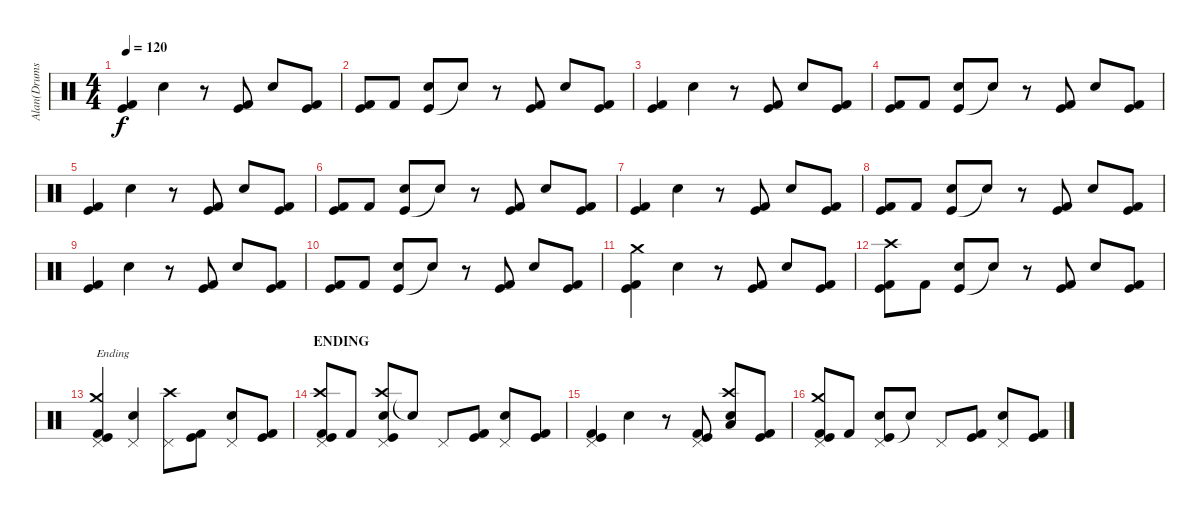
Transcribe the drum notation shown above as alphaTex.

\track ("Alan(Drums)" "Alan(Drums") {instrument percussion}
\staff {score}
\articulation defaults
\ts (4 4)
\tempo 120
\clef neutral
\ks c
("Kick (hit) 2" "Kick (hit)").4{dy f} "Electric Snare (hit)".4 r.8 ("Kick (hit)" "Kick (hit) 2").8 "Electric Snare (hit)".8 ("Kick (hit)" "Kick (hit) 2").8 |
("Kick (hit)" "Kick (hit) 2").8 "Kick (hit) 2".8 ("Kick (hit)" "Electric Snare (hit)").8 "Snare (hit)"{t}.8 r.8 ("Kick (hit)" "Kick (hit) 2").8 "Electric Snare (hit)".8 ("Kick (hit)" "Kick (hit) 2").8 |
("Kick (hit) 2" "Kick (hit)").4 "Electric Snare (hit)".4 r.8 ("Kick (hit)" "Kick (hit) 2").8 "Electric Snare (hit)".8 ("Kick (hit)" "Kick (hit) 2").8 |
("Kick (hit)" "Kick (hit) 2").8 "Kick (hit) 2".8 ("Kick (hit)" "Electric Snare (hit)").8 "Snare (hit)"{t}.8 r.8 ("Kick (hit)" "Kick (hit) 2").8 "Electric Snare (hit)".8 ("Kick (hit)" "Kick (hit) 2").8 |
("Kick (hit) 2" "Kick (hit)").4 "Electric Snare (hit)".4 r.8 ("Kick (hit)" "Kick (hit) 2").8 "Electric Snare (hit)".8 ("Kick (hit)" "Kick (hit) 2").8 |
("Kick (hit)" "Kick (hit) 2").8 "Kick (hit) 2".8 ("Kick (hit)" "Electric Snare (hit)").8 "Snare (hit)"{t}.8 r.8 ("Kick (hit)" "Kick (hit) 2").8 "Electric Snare (hit)".8 ("Kick (hit)" "Kick (hit) 2").8 |
("Kick (hit) 2" "Kick (hit)").4 "Electric Snare (hit)".4 r.8 ("Kick (hit)" "Kick (hit) 2").8 "Electric Snare (hit)".8 ("Kick (hit)" "Kick (hit) 2").8 |
("Kick (hit)" "Kick (hit) 2").8 "Kick (hit) 2".8 ("Kick (hit)" "Electric Snare (hit)").8 "Snare (hit)"{t}.8 r.8 ("Kick (hit)" "Kick (hit) 2").8 "Electric Snare (hit)".8 ("Kick (hit)" "Kick (hit) 2").8 |
("Kick (hit) 2" "Kick (hit)").4 "Electric Snare (hit)".4 r.8 ("Kick (hit)" "Kick (hit) 2").8 "Electric Snare (hit)".8 ("Kick (hit)" "Kick (hit) 2").8 |
("Kick (hit)" "Kick (hit) 2").8 "Kick (hit) 2".8 ("Kick (hit)" "Electric Snare (hit)").8 "Snare (hit)"{t}.8 r.8 ("Kick (hit)" "Kick (hit) 2").8 "Electric Snare (hit)".8 ("Kick (hit)" "Kick (hit) 2").8 |
("Crash medium (hit)" "Kick (hit) 2" "Kick (hit)").4 "Electric Snare (hit)".4 r.8 ("Kick (hit)" "Kick (hit) 2").8 "Electric Snare (hit)".8 ("Kick (hit)" "Kick (hit) 2").8 |
("Crash high (hit)" "Kick (hit)" "Kick (hit) 2").8 "Kick (hit) 2".8 ("Kick (hit)" "Electric Snare (hit)").8 "Snare (hit)"{t}.8 r.8 ("Kick (hit)" "Kick (hit) 2").8 "Electric Snare (hit)".8 ("Kick (hit)" "Kick (hit) 2").8 |
("Crash medium (hit)" "Kick (hit) 2" "Kick (hit)" "Pedal Hi-Hat (hit)").4{txt "Ending"} ("Electric Snare (hit)" "Pedal Hi-Hat (hit)").4 ("Crash high (hit)" "Pedal Hi-Hat (hit)").8 ("Kick (hit)" "Kick (hit) 2").8 ("Electric Snare (hit)" "Pedal Hi-Hat (hit)").8 ("Kick (hit)" "Kick (hit) 2").8 |
\section ("" "ENDING")
("Crash high (hit)" "Kick (hit)" "Kick (hit) 2" "Pedal Hi-Hat (hit)").8 "Kick (hit) 2".8 ("Crash high (hit)" "Kick (hit)" "Electric Snare (hit)" "Pedal Hi-Hat (hit)").8 "Snare (hit)"{t}.8 "Pedal Hi-Hat (hit)".8 ("Kick (hit)" "Kick (hit) 2").8 ("Electric Snare (hit)" "Pedal Hi-Hat (hit)").8 ("Kick (hit)" "Kick (hit) 2").8 |
("Kick (hit) 2" "Kick (hit)" "Pedal Hi-Hat (hit)").4 "Electric Snare (hit)".4 r.8 ("Kick (hit)" "Kick (hit) 2" "Pedal Hi-Hat (hit)").8 ("Crash high (hit)" "Low Tom (hit)" "Electric Snare (hit)").8 ("Kick (hit)" "Kick (hit) 2").8 |
("Crash medium (hit)" "Kick (hit)" "Kick (hit) 2" "Pedal Hi-Hat (hit)").8 "Kick (hit) 2".8 ("Kick (hit)" "Electric Snare (hit)" "Pedal Hi-Hat (hit)").8 "Snare (hit)"{t}.8 "Pedal Hi-Hat (hit)".8 ("Kick (hit)" "Kick (hit) 2").8 ("Electric Snare (hit)" "Pedal Hi-Hat (hit)").8 ("Kick (hit)" "Kick (hit) 2").8
